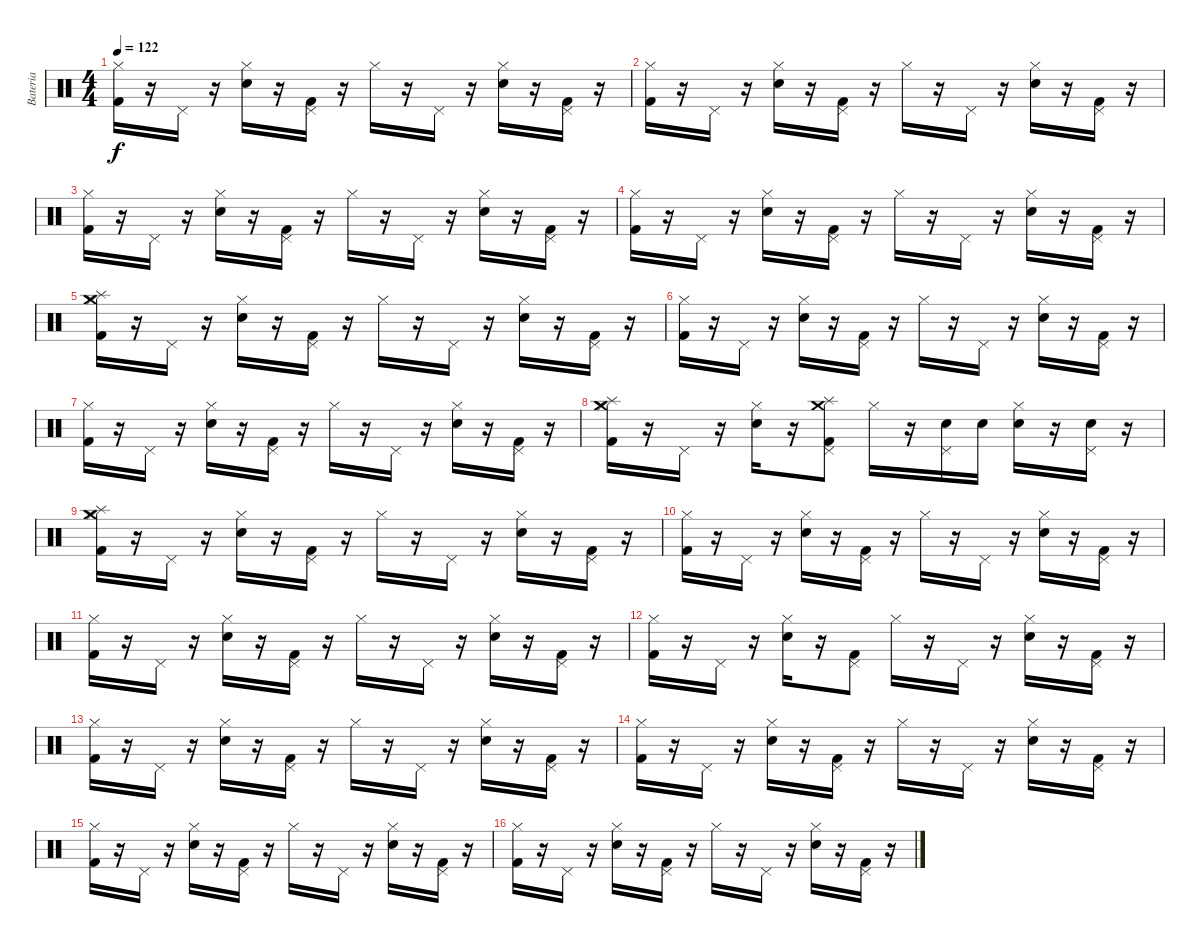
\track ("Bateria" "Bateria") {instrument percussion}
\staff {score}
\articulation defaults
\ts (4 4)
\tempo 122
\clef neutral
\ks c
("Hi-Hat (closed)" "Kick (hit) 2").16{dy f} r.16 "Pedal Hi-Hat (hit)".16 r.16 ("Snare (hit) 2" "Hi-Hat (closed)").16 r.16 ("Kick (hit) 2" "Pedal Hi-Hat (hit)").16 r.16 "Hi-Hat (closed)".16 r.16 "Pedal Hi-Hat (hit)".16 r.16 ("Snare (hit) 2" "Hi-Hat (closed)").16 r.16 ("Kick (hit) 2" "Pedal Hi-Hat (hit)").16 r.16 |
("Hi-Hat (closed)" "Kick (hit) 2").16 r.16 "Pedal Hi-Hat (hit)".16 r.16 ("Hi-Hat (closed)" "Snare (hit) 2").16 r.16 ("Kick (hit) 2" "Pedal Hi-Hat (hit)").16 r.16 "Hi-Hat (closed)".16 r.16 "Pedal Hi-Hat (hit)".16 r.16 ("Snare (hit) 2" "Hi-Hat (closed)").16 r.16 ("Kick (hit) 2" "Pedal Hi-Hat (hit)").16 r.16 |
("Kick (hit) 2" "Hi-Hat (closed)").16 r.16 "Pedal Hi-Hat (hit)".16 r.16 ("Hi-Hat (closed)" "Snare (hit) 2").16 r.16 ("Pedal Hi-Hat (hit)" "Kick (hit) 2").16 r.16 "Hi-Hat (closed)".16 r.16 "Pedal Hi-Hat (hit)".16 r.16 ("Snare (hit) 2" "Hi-Hat (closed)").16 r.16 ("Kick (hit) 2" "Pedal Hi-Hat (hit)").16 r.16 |
("Kick (hit) 2" "Hi-Hat (closed)").16 r.16 "Pedal Hi-Hat (hit)".16 r.16 ("Snare (hit) 2" "Hi-Hat (closed)").16 r.16 ("Pedal Hi-Hat (hit)" "Kick (hit) 2").16 r.16 "Hi-Hat (closed)".16 r.16 "Pedal Hi-Hat (hit)".16 r.16 ("Snare (hit) 2" "Hi-Hat (closed)").16 r.16 ("Kick (hit) 2" "Pedal Hi-Hat (hit)").16 r.16 |
("Kick (hit) 2" "Splash (hit)" "Crash medium (hit)" "Hi-Hat (closed)").16 r.16 "Pedal Hi-Hat (hit)".16 r.16 ("Snare (hit) 2" "Hi-Hat (closed)").16 r.16 ("Kick (hit) 2" "Pedal Hi-Hat (hit)").16 r.16 "Hi-Hat (closed)".16 r.16 "Pedal Hi-Hat (hit)".16 r.16 ("Hi-Hat (closed)" "Snare (hit) 2").16 r.16 ("Pedal Hi-Hat (hit)" "Kick (hit) 2").16 r.16 |
("Kick (hit) 2" "Hi-Hat (closed)").16 r.16 "Pedal Hi-Hat (hit)".16 r.16 ("Snare (hit) 2" "Hi-Hat (closed)").16 r.16 ("Kick (hit) 2" "Pedal Hi-Hat (hit)").16 r.16 "Hi-Hat (closed)".16 r.16 "Pedal Hi-Hat (hit)".16 r.16 ("Snare (hit) 2" "Hi-Hat (closed)").16 r.16 ("Pedal Hi-Hat (hit)" "Kick (hit) 2").16 r.16 |
("Hi-Hat (closed)" "Kick (hit) 2").16 r.16 "Pedal Hi-Hat (hit)".16 r.16 ("Snare (hit) 2" "Hi-Hat (closed)").16 r.16 ("Kick (hit) 2" "Pedal Hi-Hat (hit)").16 r.16 "Hi-Hat (closed)".16 r.16 "Pedal Hi-Hat (hit)".16 r.16 ("Snare (hit) 2" "Hi-Hat (closed)").16 r.16 ("Kick (hit) 2" "Pedal Hi-Hat (hit)").16 r.16 |
("Kick (hit) 2" "Hi-Hat (closed)" "Crash medium (hit)" "Splash (hit)").16 r.16 "Pedal Hi-Hat (hit)".16 r.16 ("Hi-Hat (closed)" "Snare (hit) 2").16 r.16 ("Splash (hit)" "Crash medium (hit)" "Pedal Hi-Hat (hit)" "Kick (hit) 2").8 "Hi-Hat (closed)".16 r.16 ("Pedal Hi-Hat (hit)" "Snare (hit) 2").16 "Snare (hit) 2".16 ("Snare (hit) 2" "Hi-Hat (closed)").16 r.16 ("Pedal Hi-Hat (hit)" "Snare (hit) 2").16 r.16 |
("Kick (hit) 2" "Splash (hit)" "Crash medium (hit)" "Hi-Hat (closed)").16 r.16 "Pedal Hi-Hat (hit)".16 r.16 ("Snare (hit) 2" "Hi-Hat (closed)").16 r.16 ("Pedal Hi-Hat (hit)" "Kick (hit) 2").16 r.16 "Hi-Hat (closed)".16 r.16 "Pedal Hi-Hat (hit)".16 r.16 ("Snare (hit) 2" "Hi-Hat (closed)").16 r.16 ("Kick (hit) 2" "Pedal Hi-Hat (hit)").16 r.16 |
("Kick (hit) 2" "Hi-Hat (closed)").16 r.16 "Pedal Hi-Hat (hit)".16 r.16 ("Snare (hit) 2" "Hi-Hat (closed)").16 r.16 ("Kick (hit) 2" "Pedal Hi-Hat (hit)").16 r.16 "Hi-Hat (closed)".16 r.16 "Pedal Hi-Hat (hit)".16 r.16 ("Hi-Hat (closed)" "Snare (hit) 2").16 r.16 ("Pedal Hi-Hat (hit)" "Kick (hit) 2").16 r.16 |
("Kick (hit) 2" "Hi-Hat (closed)").16 r.16 "Pedal Hi-Hat (hit)".16 r.16 ("Snare (hit) 2" "Hi-Hat (closed)").16 r.16 ("Kick (hit) 2" "Pedal Hi-Hat (hit)").16 r.16 "Hi-Hat (closed)".16 r.16 "Pedal Hi-Hat (hit)".16 r.16 ("Snare (hit) 2" "Hi-Hat (closed)").16 r.16 ("Pedal Hi-Hat (hit)" "Kick (hit) 2").16 r.16 |
("Hi-Hat (closed)" "Kick (hit) 2").16 r.16 "Pedal Hi-Hat (hit)".16 r.16 ("Snare (hit) 2" "Hi-Hat (closed)").16 r.16 ("Kick (hit) 2" "Pedal Hi-Hat (hit)").8 "Hi-Hat (closed)".16 r.16 "Pedal Hi-Hat (hit)".16 r.16 ("Snare (hit) 2" "Hi-Hat (closed)").16 r.16 ("Kick (hit) 2" "Pedal Hi-Hat (hit)").16 r.16 |
("Kick (hit) 2" "Hi-Hat (closed)").16 r.16 "Pedal Hi-Hat (hit)".16 r.16 ("Hi-Hat (closed)" "Snare (hit) 2").16 r.16 ("Pedal Hi-Hat (hit)" "Kick (hit) 2").16 r.16 "Hi-Hat (closed)".16 r.16 "Pedal Hi-Hat (hit)".16 r.16 ("Snare (hit) 2" "Hi-Hat (closed)").16 r.16 ("Kick (hit) 2" "Pedal Hi-Hat (hit)").16 r.16 |
("Kick (hit) 2" "Hi-Hat (closed)").16 r.16 "Pedal Hi-Hat (hit)".16 r.16 ("Snare (hit) 2" "Hi-Hat (closed)").16 r.16 ("Pedal Hi-Hat (hit)" "Kick (hit) 2").16 r.16 "Hi-Hat (closed)".16 r.16 "Pedal Hi-Hat (hit)".16 r.16 ("Snare (hit) 2" "Hi-Hat (closed)").16 r.16 ("Kick (hit) 2" "Pedal Hi-Hat (hit)").16 r.16 |
("Kick (hit) 2" "Hi-Hat (closed)").16 r.16 "Pedal Hi-Hat (hit)".16 r.16 ("Snare (hit) 2" "Hi-Hat (closed)").16 r.16 ("Kick (hit) 2" "Pedal Hi-Hat (hit)").16 r.16 "Hi-Hat (closed)".16 r.16 "Pedal Hi-Hat (hit)".16 r.16 ("Hi-Hat (closed)" "Snare (hit) 2").16 r.16 ("Pedal Hi-Hat (hit)" "Kick (hit) 2").16 r.16 |
("Kick (hit) 2" "Hi-Hat (closed)").16 r.16 "Pedal Hi-Hat (hit)".16 r.16 ("Snare (hit) 2" "Hi-Hat (closed)").16 r.16 ("Kick (hit) 2" "Pedal Hi-Hat (hit)").16 r.16 "Hi-Hat (closed)".16 r.16 "Pedal Hi-Hat (hit)".16 r.16 ("Snare (hit) 2" "Hi-Hat (closed)").16 r.16 ("Pedal Hi-Hat (hit)" "Kick (hit) 2").16 r.16
